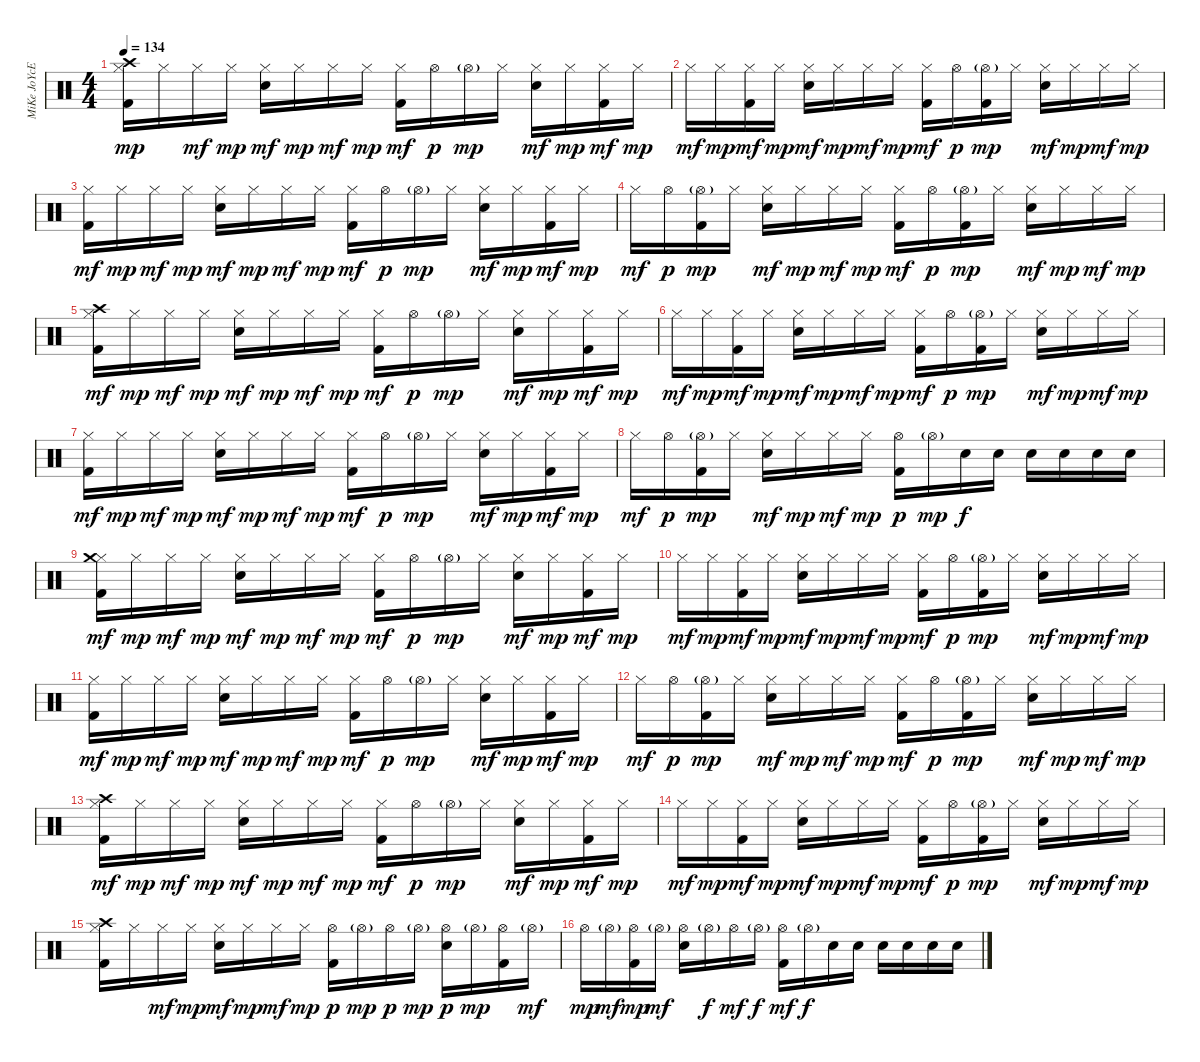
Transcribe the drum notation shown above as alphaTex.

\track ("MiKe JoYcE" "MiKe JoYcE") {instrument percussion}
\staff {score}
\articulation defaults
\ts (4 4)
\tempo 134
\clef neutral
\ks c
("Hi-Hat (closed)" "Crash high (hit)" "Kick (hit) 2").16{dy mp} "Hi-Hat (closed)".16 "Hi-Hat (closed)".16{dy mf} "Hi-Hat (closed)".16{dy mp} ("Hi-Hat (closed)" "Electric Snare (hit)").16{dy mf} "Hi-Hat (closed)".16{dy mp} "Hi-Hat (closed)".16{dy mf} "Hi-Hat (closed)".16{dy mp} ("Hi-Hat (closed)" "Kick (hit) 2").16{dy mf} "Hi-Hat (open)".16{dy p} "Hi-Hat (open)"{g}.16{dy mp} "Hi-Hat (closed)".16 ("Hi-Hat (closed)" "Electric Snare (hit)").16{dy mf} "Hi-Hat (closed)".16{dy mp} ("Hi-Hat (closed)" "Kick (hit) 2").16{dy mf} "Hi-Hat (closed)".16{dy mp} |
"Hi-Hat (closed)".16{dy mf} "Hi-Hat (closed)".16{dy mp} ("Hi-Hat (closed)" "Kick (hit) 2").16{dy mf} "Hi-Hat (closed)".16{dy mp} ("Hi-Hat (closed)" "Electric Snare (hit)").16{dy mf} "Hi-Hat (closed)".16{dy mp} "Hi-Hat (closed)".16{dy mf} "Hi-Hat (closed)".16{dy mp} ("Hi-Hat (closed)" "Kick (hit) 2").16{dy mf} "Hi-Hat (open)".16{dy p} ("Hi-Hat (open)"{g} "Kick (hit) 2").16{dy mp} "Hi-Hat (closed)".16 ("Hi-Hat (closed)" "Electric Snare (hit)").16{dy mf} "Hi-Hat (closed)".16{dy mp} "Hi-Hat (closed)".16{dy mf} "Hi-Hat (closed)".16{dy mp} |
("Hi-Hat (closed)" "Kick (hit) 2").16{dy mf} "Hi-Hat (closed)".16{dy mp} "Hi-Hat (closed)".16{dy mf} "Hi-Hat (closed)".16{dy mp} ("Hi-Hat (closed)" "Electric Snare (hit)").16{dy mf} "Hi-Hat (closed)".16{dy mp} "Hi-Hat (closed)".16{dy mf} "Hi-Hat (closed)".16{dy mp} ("Hi-Hat (closed)" "Kick (hit) 2").16{dy mf} "Hi-Hat (open)".16{dy p} "Hi-Hat (open)"{g}.16{dy mp} "Hi-Hat (closed)".16 ("Hi-Hat (closed)" "Electric Snare (hit)").16{dy mf} "Hi-Hat (closed)".16{dy mp} ("Hi-Hat (closed)" "Kick (hit) 2").16{dy mf} "Hi-Hat (closed)".16{dy mp} |
"Hi-Hat (closed)".16{dy mf} "Hi-Hat (open)".16{dy p} ("Hi-Hat (open)"{g} "Kick (hit) 2").16{dy mp} "Hi-Hat (closed)".16 ("Hi-Hat (closed)" "Electric Snare (hit)").16{dy mf} "Hi-Hat (closed)".16{dy mp} "Hi-Hat (closed)".16{dy mf} "Hi-Hat (closed)".16{dy mp} ("Hi-Hat (closed)" "Kick (hit) 2").16{dy mf} "Hi-Hat (open)".16{dy p} ("Hi-Hat (open)"{g} "Kick (hit) 2").16{dy mp} "Hi-Hat (closed)".16 ("Hi-Hat (closed)" "Electric Snare (hit)").16{dy mf} "Hi-Hat (closed)".16{dy mp} "Hi-Hat (closed)".16{dy mf} "Hi-Hat (closed)".16{dy mp} |
("Hi-Hat (closed)" "Crash high (hit)" "Kick (hit) 2").16{dy mf} "Hi-Hat (closed)".16{dy mp} "Hi-Hat (closed)".16{dy mf} "Hi-Hat (closed)".16{dy mp} ("Hi-Hat (closed)" "Electric Snare (hit)").16{dy mf} "Hi-Hat (closed)".16{dy mp} "Hi-Hat (closed)".16{dy mf} "Hi-Hat (closed)".16{dy mp} ("Hi-Hat (closed)" "Kick (hit) 2").16{dy mf} "Hi-Hat (open)".16{dy p} "Hi-Hat (open)"{g}.16{dy mp} "Hi-Hat (closed)".16 ("Hi-Hat (closed)" "Electric Snare (hit)").16{dy mf} "Hi-Hat (closed)".16{dy mp} ("Hi-Hat (closed)" "Kick (hit) 2").16{dy mf} "Hi-Hat (closed)".16{dy mp} |
"Hi-Hat (closed)".16{dy mf} "Hi-Hat (closed)".16{dy mp} ("Hi-Hat (closed)" "Kick (hit) 2").16{dy mf} "Hi-Hat (closed)".16{dy mp} ("Hi-Hat (closed)" "Electric Snare (hit)").16{dy mf} "Hi-Hat (closed)".16{dy mp} "Hi-Hat (closed)".16{dy mf} "Hi-Hat (closed)".16{dy mp} ("Hi-Hat (closed)" "Kick (hit) 2").16{dy mf} "Hi-Hat (open)".16{dy p} ("Hi-Hat (open)"{g} "Kick (hit) 2").16{dy mp} "Hi-Hat (closed)".16 ("Hi-Hat (closed)" "Electric Snare (hit)").16{dy mf} "Hi-Hat (closed)".16{dy mp} "Hi-Hat (closed)".16{dy mf} "Hi-Hat (closed)".16{dy mp} |
("Hi-Hat (closed)" "Kick (hit) 2").16{dy mf} "Hi-Hat (closed)".16{dy mp} "Hi-Hat (closed)".16{dy mf} "Hi-Hat (closed)".16{dy mp} ("Hi-Hat (closed)" "Electric Snare (hit)").16{dy mf} "Hi-Hat (closed)".16{dy mp} "Hi-Hat (closed)".16{dy mf} "Hi-Hat (closed)".16{dy mp} ("Hi-Hat (closed)" "Kick (hit) 2").16{dy mf} "Hi-Hat (open)".16{dy p} "Hi-Hat (open)"{g}.16{dy mp} "Hi-Hat (closed)".16 ("Hi-Hat (closed)" "Electric Snare (hit)").16{dy mf} "Hi-Hat (closed)".16{dy mp} ("Hi-Hat (closed)" "Kick (hit) 2").16{dy mf} "Hi-Hat (closed)".16{dy mp} |
"Hi-Hat (closed)".16{dy mf} "Hi-Hat (open)".16{dy p} ("Hi-Hat (open)"{g} "Kick (hit) 2").16{dy mp} "Hi-Hat (closed)".16 ("Hi-Hat (closed)" "Electric Snare (hit)").16{dy mf} "Hi-Hat (closed)".16{dy mp} "Hi-Hat (closed)".16{dy mf} "Hi-Hat (closed)".16{dy mp} ("Hi-Hat (open)" "Kick (hit) 2").16{dy p} "Hi-Hat (open)"{g}.16{dy mp} "Electric Snare (hit)".16{dy f} "Electric Snare (hit)".16 "Electric Snare (hit)".16 "Electric Snare (hit)".16 "Electric Snare (hit)".16 "Electric Snare (hit)".16 |
("Hi-Hat (closed)" "Crash medium (hit)" "Kick (hit) 2").16{dy mf} "Hi-Hat (closed)".16{dy mp} "Hi-Hat (closed)".16{dy mf} "Hi-Hat (closed)".16{dy mp} ("Hi-Hat (closed)" "Electric Snare (hit)").16{dy mf} "Hi-Hat (closed)".16{dy mp} "Hi-Hat (closed)".16{dy mf} "Hi-Hat (closed)".16{dy mp} ("Hi-Hat (closed)" "Kick (hit) 2").16{dy mf} "Hi-Hat (open)".16{dy p} "Hi-Hat (open)"{g}.16{dy mp} "Hi-Hat (closed)".16 ("Hi-Hat (closed)" "Electric Snare (hit)").16{dy mf} "Hi-Hat (closed)".16{dy mp} ("Hi-Hat (closed)" "Kick (hit) 2").16{dy mf} "Hi-Hat (closed)".16{dy mp} |
"Hi-Hat (closed)".16{dy mf} "Hi-Hat (closed)".16{dy mp} ("Hi-Hat (closed)" "Kick (hit) 2").16{dy mf} "Hi-Hat (closed)".16{dy mp} ("Hi-Hat (closed)" "Electric Snare (hit)").16{dy mf} "Hi-Hat (closed)".16{dy mp} "Hi-Hat (closed)".16{dy mf} "Hi-Hat (closed)".16{dy mp} ("Hi-Hat (closed)" "Kick (hit) 2").16{dy mf} "Hi-Hat (open)".16{dy p} ("Hi-Hat (open)"{g} "Kick (hit) 2").16{dy mp} "Hi-Hat (closed)".16 ("Hi-Hat (closed)" "Electric Snare (hit)").16{dy mf} "Hi-Hat (closed)".16{dy mp} "Hi-Hat (closed)".16{dy mf} "Hi-Hat (closed)".16{dy mp} |
("Hi-Hat (closed)" "Kick (hit) 2").16{dy mf} "Hi-Hat (closed)".16{dy mp} "Hi-Hat (closed)".16{dy mf} "Hi-Hat (closed)".16{dy mp} ("Hi-Hat (closed)" "Electric Snare (hit)").16{dy mf} "Hi-Hat (closed)".16{dy mp} "Hi-Hat (closed)".16{dy mf} "Hi-Hat (closed)".16{dy mp} ("Hi-Hat (closed)" "Kick (hit) 2").16{dy mf} "Hi-Hat (open)".16{dy p} "Hi-Hat (open)"{g}.16{dy mp} "Hi-Hat (closed)".16 ("Hi-Hat (closed)" "Electric Snare (hit)").16{dy mf} "Hi-Hat (closed)".16{dy mp} ("Hi-Hat (closed)" "Kick (hit) 2").16{dy mf} "Hi-Hat (closed)".16{dy mp} |
"Hi-Hat (closed)".16{dy mf} "Hi-Hat (open)".16{dy p} ("Hi-Hat (open)"{g} "Kick (hit) 2").16{dy mp} "Hi-Hat (closed)".16 ("Hi-Hat (closed)" "Electric Snare (hit)").16{dy mf} "Hi-Hat (closed)".16{dy mp} "Hi-Hat (closed)".16{dy mf} "Hi-Hat (closed)".16{dy mp} ("Hi-Hat (closed)" "Kick (hit) 2").16{dy mf} "Hi-Hat (open)".16{dy p} ("Hi-Hat (open)"{g} "Kick (hit) 2").16{dy mp} "Hi-Hat (closed)".16 ("Hi-Hat (closed)" "Electric Snare (hit)").16{dy mf} "Hi-Hat (closed)".16{dy mp} "Hi-Hat (closed)".16{dy mf} "Hi-Hat (closed)".16{dy mp} |
("Hi-Hat (closed)" "Crash high (hit)" "Kick (hit) 2").16{dy mf} "Hi-Hat (closed)".16{dy mp} "Hi-Hat (closed)".16{dy mf} "Hi-Hat (closed)".16{dy mp} ("Hi-Hat (closed)" "Electric Snare (hit)").16{dy mf} "Hi-Hat (closed)".16{dy mp} "Hi-Hat (closed)".16{dy mf} "Hi-Hat (closed)".16{dy mp} ("Hi-Hat (closed)" "Kick (hit) 2").16{dy mf} "Hi-Hat (open)".16{dy p} "Hi-Hat (open)"{g}.16{dy mp} "Hi-Hat (closed)".16 ("Hi-Hat (closed)" "Electric Snare (hit)").16{dy mf} "Hi-Hat (closed)".16{dy mp} ("Hi-Hat (closed)" "Kick (hit) 2").16{dy mf} "Hi-Hat (closed)".16{dy mp} |
"Hi-Hat (closed)".16{dy mf} "Hi-Hat (closed)".16{dy mp} ("Hi-Hat (closed)" "Kick (hit) 2").16{dy mf} "Hi-Hat (closed)".16{dy mp} ("Hi-Hat (closed)" "Electric Snare (hit)").16{dy mf} "Hi-Hat (closed)".16{dy mp} "Hi-Hat (closed)".16{dy mf} "Hi-Hat (closed)".16{dy mp} ("Hi-Hat (closed)" "Kick (hit) 2").16{dy mf} "Hi-Hat (open)".16{dy p} ("Hi-Hat (open)"{g} "Kick (hit) 2").16{dy mp} "Hi-Hat (closed)".16 ("Hi-Hat (closed)" "Electric Snare (hit)").16{dy mf} "Hi-Hat (closed)".16{dy mp} "Hi-Hat (closed)".16{dy mf} "Hi-Hat (closed)".16{dy mp} |
("Hi-Hat (closed)" "Crash high (hit)" "Kick (hit) 2").16 "Hi-Hat (closed)".16 "Hi-Hat (closed)".16{dy mf} "Hi-Hat (closed)".16{dy mp} ("Hi-Hat (closed)" "Electric Snare (hit)").16{dy mf} "Hi-Hat (closed)".16{dy mp} "Hi-Hat (closed)".16{dy mf} "Hi-Hat (closed)".16{dy mp} ("Hi-Hat (open)" "Kick (hit) 2").16{dy p} "Hi-Hat (open)"{g}.16{dy mp} "Hi-Hat (open)".16{dy p} "Hi-Hat (open)"{g}.16{dy mp} ("Hi-Hat (open)" "Electric Snare (hit)").16{dy p} "Hi-Hat (open)"{g}.16{dy mp} ("Hi-Hat (open)" "Kick (hit) 2").16 "Hi-Hat (open)"{g}.16{dy mf} |
"Hi-Hat (open)".16{dy mp} "Hi-Hat (open)"{g}.16{dy mf} ("Hi-Hat (open)" "Kick (hit) 2").16{dy mp} "Hi-Hat (open)"{g}.16{dy mf} ("Hi-Hat (open)" "Electric Snare (hit)").16 "Hi-Hat (open)"{g}.16{dy f} "Hi-Hat (open)".16{dy mf} "Hi-Hat (open)"{g}.16{dy f} ("Hi-Hat (open)" "Kick (hit) 2").16{dy mf} "Hi-Hat (open)"{g}.16{dy f} "Electric Snare (hit)".16 "Electric Snare (hit)".16 "Electric Snare (hit)".16 "Electric Snare (hit)".16 "Electric Snare (hit)".16 "Electric Snare (hit)".16
